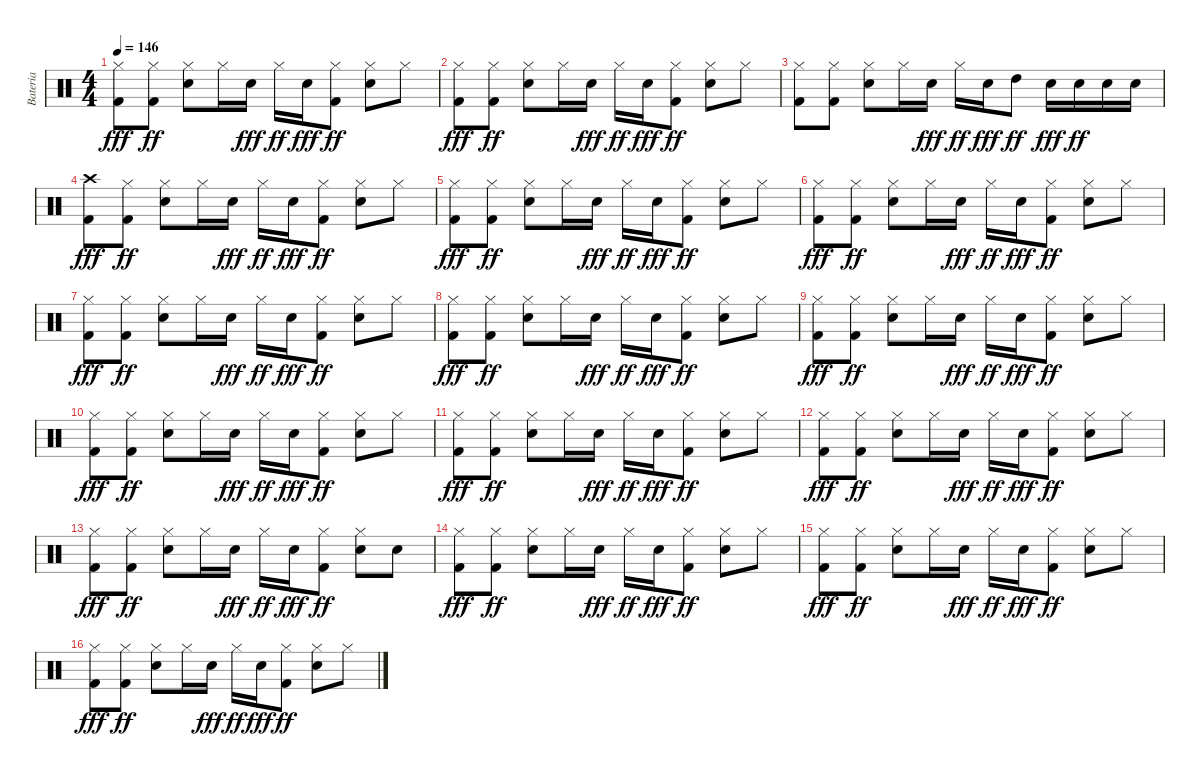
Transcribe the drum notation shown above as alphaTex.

\track ("Bateria" "Bateria") {instrument percussion}
\staff {score}
\articulation defaults
\ts (4 4)
\tempo 146
\clef neutral
\ks c
("Hi-Hat (closed)" "Kick (hit) 2").8{dy fff} ("Kick (hit) 2" "Hi-Hat (closed)").8{dy ff} ("Electric Snare (hit)" "Hi-Hat (closed)").8 "Hi-Hat (closed)".16 "Electric Snare (hit)".16{dy fff} "Hi-Hat (closed)".16{dy ff} "Electric Snare (hit)".16{dy fff} ("Kick (hit) 2" "Hi-Hat (closed)").8{dy ff} ("Electric Snare (hit)" "Hi-Hat (closed)").8 "Hi-Hat (closed)".8 |
("Hi-Hat (closed)" "Kick (hit) 2").8{dy fff} ("Kick (hit) 2" "Hi-Hat (closed)").8{dy ff} ("Electric Snare (hit)" "Hi-Hat (closed)").8 "Hi-Hat (closed)".16 "Electric Snare (hit)".16{dy fff} "Hi-Hat (closed)".16{dy ff} "Electric Snare (hit)".16{dy fff} ("Kick (hit) 2" "Hi-Hat (closed)").8{dy ff} ("Electric Snare (hit)" "Hi-Hat (closed)").8 "Hi-Hat (closed)".8 |
("Kick (hit) 2" "Hi-Hat (closed)").8 ("Kick (hit) 2" "Hi-Hat (closed)").8 ("Electric Snare (hit)" "Hi-Hat (closed)").8 "Hi-Hat (closed)".16 "Electric Snare (hit)".16{dy fff} "Hi-Hat (closed)".16{dy ff} "Electric Snare (hit)".16{dy fff} "High Tom (hit)".8{dy ff} "Electric Snare (hit)".16{dy fff} "Electric Snare (hit)".16{dy ff} "Electric Snare (hit)".16 "Electric Snare (hit)".16 |
("Crash high (hit)" "Kick (hit) 2").8{dy fff} ("Kick (hit) 2" "Hi-Hat (closed)").8{dy ff} ("Electric Snare (hit)" "Hi-Hat (closed)").8 "Hi-Hat (closed)".16 "Electric Snare (hit)".16{dy fff} "Hi-Hat (closed)".16{dy ff} "Electric Snare (hit)".16{dy fff} ("Kick (hit) 2" "Hi-Hat (closed)").8{dy ff} ("Electric Snare (hit)" "Hi-Hat (closed)").8 "Hi-Hat (closed)".8 |
("Hi-Hat (closed)" "Kick (hit) 2").8{dy fff} ("Kick (hit) 2" "Hi-Hat (closed)").8{dy ff} ("Electric Snare (hit)" "Hi-Hat (closed)").8 "Hi-Hat (closed)".16 "Electric Snare (hit)".16{dy fff} "Hi-Hat (closed)".16{dy ff} "Electric Snare (hit)".16{dy fff} ("Kick (hit) 2" "Hi-Hat (closed)").8{dy ff} ("Electric Snare (hit)" "Hi-Hat (closed)").8 "Hi-Hat (closed)".8 |
("Hi-Hat (closed)" "Kick (hit) 2").8{dy fff} ("Kick (hit) 2" "Hi-Hat (closed)").8{dy ff} ("Electric Snare (hit)" "Hi-Hat (closed)").8 "Hi-Hat (closed)".16 "Electric Snare (hit)".16{dy fff} "Hi-Hat (closed)".16{dy ff} "Electric Snare (hit)".16{dy fff} ("Kick (hit) 2" "Hi-Hat (closed)").8{dy ff} ("Electric Snare (hit)" "Hi-Hat (closed)").8 "Hi-Hat (closed)".8 |
("Hi-Hat (closed)" "Kick (hit) 2").8{dy fff} ("Kick (hit) 2" "Hi-Hat (closed)").8{dy ff} ("Electric Snare (hit)" "Hi-Hat (closed)").8 "Hi-Hat (closed)".16 "Electric Snare (hit)".16{dy fff} "Hi-Hat (closed)".16{dy ff} "Electric Snare (hit)".16{dy fff} ("Kick (hit) 2" "Hi-Hat (closed)").8{dy ff} ("Electric Snare (hit)" "Hi-Hat (closed)").8 "Hi-Hat (closed)".8 |
("Hi-Hat (closed)" "Kick (hit) 2").8{dy fff} ("Kick (hit) 2" "Hi-Hat (closed)").8{dy ff} ("Electric Snare (hit)" "Hi-Hat (closed)").8 "Hi-Hat (closed)".16 "Electric Snare (hit)".16{dy fff} "Hi-Hat (closed)".16{dy ff} "Electric Snare (hit)".16{dy fff} ("Kick (hit) 2" "Hi-Hat (closed)").8{dy ff} ("Electric Snare (hit)" "Hi-Hat (closed)").8 "Hi-Hat (closed)".8 |
("Hi-Hat (closed)" "Kick (hit) 2").8{dy fff} ("Kick (hit) 2" "Hi-Hat (closed)").8{dy ff} ("Electric Snare (hit)" "Hi-Hat (closed)").8 "Hi-Hat (closed)".16 "Electric Snare (hit)".16{dy fff} "Hi-Hat (closed)".16{dy ff} "Electric Snare (hit)".16{dy fff} ("Kick (hit) 2" "Hi-Hat (closed)").8{dy ff} ("Electric Snare (hit)" "Hi-Hat (closed)").8 "Hi-Hat (closed)".8 |
("Hi-Hat (closed)" "Kick (hit) 2").8{dy fff} ("Kick (hit) 2" "Hi-Hat (closed)").8{dy ff} ("Electric Snare (hit)" "Hi-Hat (closed)").8 "Hi-Hat (closed)".16 "Electric Snare (hit)".16{dy fff} "Hi-Hat (closed)".16{dy ff} "Electric Snare (hit)".16{dy fff} ("Kick (hit) 2" "Hi-Hat (closed)").8{dy ff} ("Electric Snare (hit)" "Hi-Hat (closed)").8 "Hi-Hat (closed)".8 |
("Hi-Hat (closed)" "Kick (hit) 2").8{dy fff} ("Kick (hit) 2" "Hi-Hat (closed)").8{dy ff} ("Electric Snare (hit)" "Hi-Hat (closed)").8 "Hi-Hat (closed)".16 "Electric Snare (hit)".16{dy fff} "Hi-Hat (closed)".16{dy ff} "Electric Snare (hit)".16{dy fff} ("Kick (hit) 2" "Hi-Hat (closed)").8{dy ff} ("Electric Snare (hit)" "Hi-Hat (closed)").8 "Hi-Hat (closed)".8 |
("Hi-Hat (closed)" "Kick (hit) 2").8{dy fff} ("Kick (hit) 2" "Hi-Hat (closed)").8{dy ff} ("Electric Snare (hit)" "Hi-Hat (closed)").8 "Hi-Hat (closed)".16 "Electric Snare (hit)".16{dy fff} "Hi-Hat (closed)".16{dy ff} "Electric Snare (hit)".16{dy fff} ("Kick (hit) 2" "Hi-Hat (closed)").8{dy ff} ("Electric Snare (hit)" "Hi-Hat (closed)").8 "Hi-Hat (closed)".8 |
("Hi-Hat (closed)" "Kick (hit) 2").8{dy fff} ("Kick (hit) 2" "Hi-Hat (closed)").8{dy ff} ("Electric Snare (hit)" "Hi-Hat (closed)").8 "Hi-Hat (closed)".16 "Electric Snare (hit)".16{dy fff} "Hi-Hat (closed)".16{dy ff} "Electric Snare (hit)".16{dy fff} ("Kick (hit) 2" "Hi-Hat (closed)").8{dy ff} ("Electric Snare (hit)" "Hi-Hat (closed)").8 "Electric Snare (hit)".8 |
("Hi-Hat (closed)" "Kick (hit) 2").8{dy fff} ("Kick (hit) 2" "Hi-Hat (closed)").8{dy ff} ("Electric Snare (hit)" "Hi-Hat (closed)").8 "Hi-Hat (closed)".16 "Electric Snare (hit)".16{dy fff} "Hi-Hat (closed)".16{dy ff} "Electric Snare (hit)".16{dy fff} ("Kick (hit) 2" "Hi-Hat (closed)").8{dy ff} ("Electric Snare (hit)" "Hi-Hat (closed)").8 "Hi-Hat (closed)".8 |
("Hi-Hat (closed)" "Kick (hit) 2").8{dy fff} ("Kick (hit) 2" "Hi-Hat (closed)").8{dy ff} ("Electric Snare (hit)" "Hi-Hat (closed)").8 "Hi-Hat (closed)".16 "Electric Snare (hit)".16{dy fff} "Hi-Hat (closed)".16{dy ff} "Electric Snare (hit)".16{dy fff} ("Kick (hit) 2" "Hi-Hat (closed)").8{dy ff} ("Electric Snare (hit)" "Hi-Hat (closed)").8 "Hi-Hat (closed)".8 |
("Hi-Hat (closed)" "Kick (hit) 2").8{dy fff} ("Kick (hit) 2" "Hi-Hat (closed)").8{dy ff} ("Electric Snare (hit)" "Hi-Hat (closed)").8 "Hi-Hat (closed)".16 "Electric Snare (hit)".16{dy fff} "Hi-Hat (closed)".16{dy ff} "Electric Snare (hit)".16{dy fff} ("Kick (hit) 2" "Hi-Hat (closed)").8{dy ff} ("Electric Snare (hit)" "Hi-Hat (closed)").8 "Hi-Hat (closed)".8
